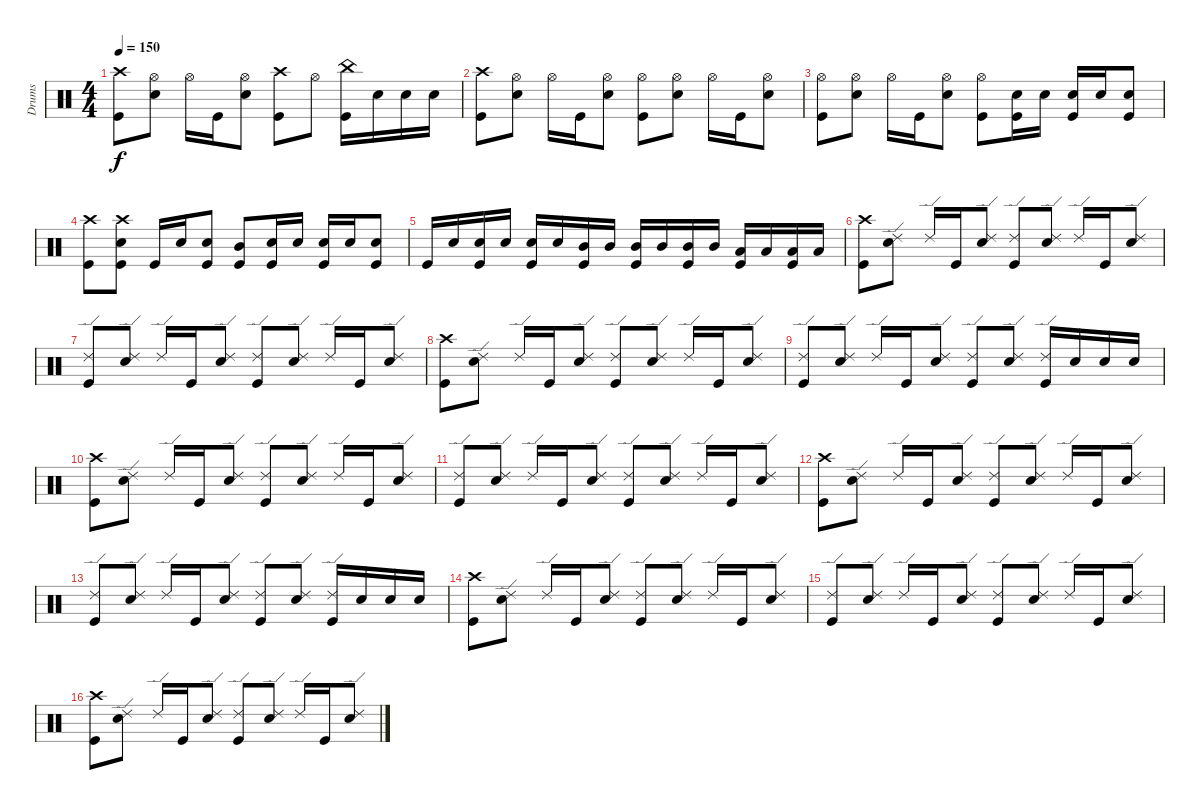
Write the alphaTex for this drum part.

\track ("Drums" "Drums") {instrument percussion}
\staff {score}
\articulation defaults
\ts (4 4)
\tempo 150
\clef neutral
\ks c
("Crash high (hit)" "Kick (hit)").8{dy f} ("Hi-Hat (open)" "Snare (hit) 2").8 "Hi-Hat (open)".16 "Kick (hit)".16 ("Hi-Hat (open)" "Snare (hit) 2").8 ("Crash high (hit)" "Kick (hit)").8 "Hi-Hat (open)".8 ("China (hit)" "Kick (hit)").16 "Snare (hit) 2".16 "Snare (hit) 2".16 "Snare (hit) 2".16 |
("Crash high (hit)" "Kick (hit)").8 ("Hi-Hat (open)" "Snare (hit) 2").8 "Hi-Hat (open)".16 "Kick (hit)".16 ("Hi-Hat (open)" "Snare (hit) 2").8 ("Hi-Hat (open)" "Kick (hit)").8 ("Hi-Hat (open)" "Snare (hit) 2").8 "Hi-Hat (open)".16 "Kick (hit)".16 ("Hi-Hat (open)" "Snare (hit) 2").8 |
("Hi-Hat (open)" "Kick (hit)").8 ("Hi-Hat (open)" "Snare (hit) 2").8 "Hi-Hat (open)".16 "Kick (hit)".16 ("Hi-Hat (open)" "Snare (hit) 2").8 ("Hi-Hat (open)" "Kick (hit)").8 ("Snare (hit) 2" "Kick (hit)").16 "Snare (hit) 2".16 ("Snare (hit) 2" "Kick (hit)").16 "Snare (hit) 2".16 ("Snare (hit) 2" "Kick (hit)").8 |
("Crash high (hit)" "Kick (hit)").8 ("Crash high (hit)" "Snare (hit) 2" "Kick (hit)").8 "Kick (hit)".16 "Snare (hit) 2".16 ("Snare (hit) 2" "Kick (hit)").8 ("Mid Tom (hit)" "Kick (hit)").8 ("Snare (hit) 2" "Kick (hit)").16 "Snare (hit) 2".16 ("Snare (hit) 2" "Kick (hit)").16 "Snare (hit) 2".16 ("Snare (hit) 2" "Kick (hit)").8 |
"Kick (hit)".16 "Snare (hit) 2".16 ("Snare (hit) 2" "Kick (hit)").16 "Snare (hit) 2".16 ("Snare (hit) 2" "Kick (hit)").16 "Snare (hit) 2".16 ("Mid Tom (hit)" "Kick (hit)").16 "Mid Tom (hit)".16 ("Mid Tom (hit)" "Kick (hit)").16 "Mid Tom (hit)".16 ("Mid Tom (hit)" "Kick (hit)").16 "Mid Tom (hit)".16 ("Low Tom (hit)" "Kick (hit)").16 "Low Tom (hit)".16 ("Low Tom (hit)" "Kick (hit)").16 "Low Tom (hit)".16 |
("Crash high (hit)" "Kick (hit)").8 ("Ride (edge) 2" "Snare (hit) 2").8 "Ride (edge) 2".16 "Kick (hit)".16 ("Ride (edge) 2" "Snare (hit) 2").8 ("Ride (edge) 2" "Kick (hit)").8 ("Ride (edge) 2" "Snare (hit) 2").8 "Ride (edge) 2".16 "Kick (hit)".16 ("Ride (edge) 2" "Snare (hit) 2").8 |
("Ride (edge) 2" "Kick (hit)").8 ("Ride (edge) 2" "Snare (hit) 2").8 "Ride (edge) 2".16 "Kick (hit)".16 ("Ride (edge) 2" "Snare (hit) 2").8 ("Ride (edge) 2" "Kick (hit)").8 ("Ride (edge) 2" "Snare (hit) 2").8 "Ride (edge) 2".16 "Kick (hit)".16 ("Ride (edge) 2" "Snare (hit) 2").8 |
("Crash high (hit)" "Kick (hit)").8 ("Ride (edge) 2" "Snare (hit) 2").8 "Ride (edge) 2".16 "Kick (hit)".16 ("Ride (edge) 2" "Snare (hit) 2").8 ("Ride (edge) 2" "Kick (hit)").8 ("Ride (edge) 2" "Snare (hit) 2").8 "Ride (edge) 2".16 "Kick (hit)".16 ("Ride (edge) 2" "Snare (hit) 2").8 |
("Ride (edge) 2" "Kick (hit)").8 ("Ride (edge) 2" "Snare (hit) 2").8 "Ride (edge) 2".16 "Kick (hit)".16 ("Ride (edge) 2" "Snare (hit) 2").8 ("Ride (edge) 2" "Kick (hit)").8 ("Ride (edge) 2" "Snare (hit) 2").8 ("Ride (edge) 2" "Kick (hit)").16 "Snare (hit) 2".16 "Snare (hit) 2".16 "Snare (hit) 2".16 |
("Crash high (hit)" "Kick (hit)").8 ("Ride (edge) 2" "Snare (hit) 2").8 "Ride (edge) 2".16 "Kick (hit)".16 ("Ride (edge) 2" "Snare (hit) 2").8 ("Ride (edge) 2" "Kick (hit)").8 ("Ride (edge) 2" "Snare (hit) 2").8 "Ride (edge) 2".16 "Kick (hit)".16 ("Ride (edge) 2" "Snare (hit) 2").8 |
("Ride (edge) 2" "Kick (hit)").8 ("Ride (edge) 2" "Snare (hit) 2").8 "Ride (edge) 2".16 "Kick (hit)".16 ("Ride (edge) 2" "Snare (hit) 2").8 ("Ride (edge) 2" "Kick (hit)").8 ("Ride (edge) 2" "Snare (hit) 2").8 "Ride (edge) 2".16 "Kick (hit)".16 ("Ride (edge) 2" "Snare (hit) 2").8 |
("Crash high (hit)" "Kick (hit)").8 ("Ride (edge) 2" "Snare (hit) 2").8 "Ride (edge) 2".16 "Kick (hit)".16 ("Ride (edge) 2" "Snare (hit) 2").8 ("Ride (edge) 2" "Kick (hit)").8 ("Ride (edge) 2" "Snare (hit) 2").8 "Ride (edge) 2".16 "Kick (hit)".16 ("Ride (edge) 2" "Snare (hit) 2").8 |
("Ride (edge) 2" "Kick (hit)").8 ("Ride (edge) 2" "Snare (hit) 2").8 "Ride (edge) 2".16 "Kick (hit)".16 ("Ride (edge) 2" "Snare (hit) 2").8 ("Ride (edge) 2" "Kick (hit)").8 ("Ride (edge) 2" "Snare (hit) 2").8 ("Ride (edge) 2" "Kick (hit)").16 "Snare (hit) 2".16 "Snare (hit) 2".16 "Snare (hit) 2".16 |
("Crash high (hit)" "Kick (hit)").8 ("Ride (edge) 2" "Snare (hit) 2").8 "Ride (edge) 2".16 "Kick (hit)".16 ("Ride (edge) 2" "Snare (hit) 2").8 ("Ride (edge) 2" "Kick (hit)").8 ("Ride (edge) 2" "Snare (hit) 2").8 "Ride (edge) 2".16 "Kick (hit)".16 ("Ride (edge) 2" "Snare (hit) 2").8 |
("Ride (edge) 2" "Kick (hit)").8 ("Ride (edge) 2" "Snare (hit) 2").8 "Ride (edge) 2".16 "Kick (hit)".16 ("Ride (edge) 2" "Snare (hit) 2").8 ("Ride (edge) 2" "Kick (hit)").8 ("Ride (edge) 2" "Snare (hit) 2").8 "Ride (edge) 2".16 "Kick (hit)".16 ("Ride (edge) 2" "Snare (hit) 2").8 |
("Crash high (hit)" "Kick (hit)").8 ("Ride (edge) 2" "Snare (hit) 2").8 "Ride (edge) 2".16 "Kick (hit)".16 ("Ride (edge) 2" "Snare (hit) 2").8 ("Ride (edge) 2" "Kick (hit)").8 ("Ride (edge) 2" "Snare (hit) 2").8 "Ride (edge) 2".16 "Kick (hit)".16 ("Ride (edge) 2" "Snare (hit) 2").8
